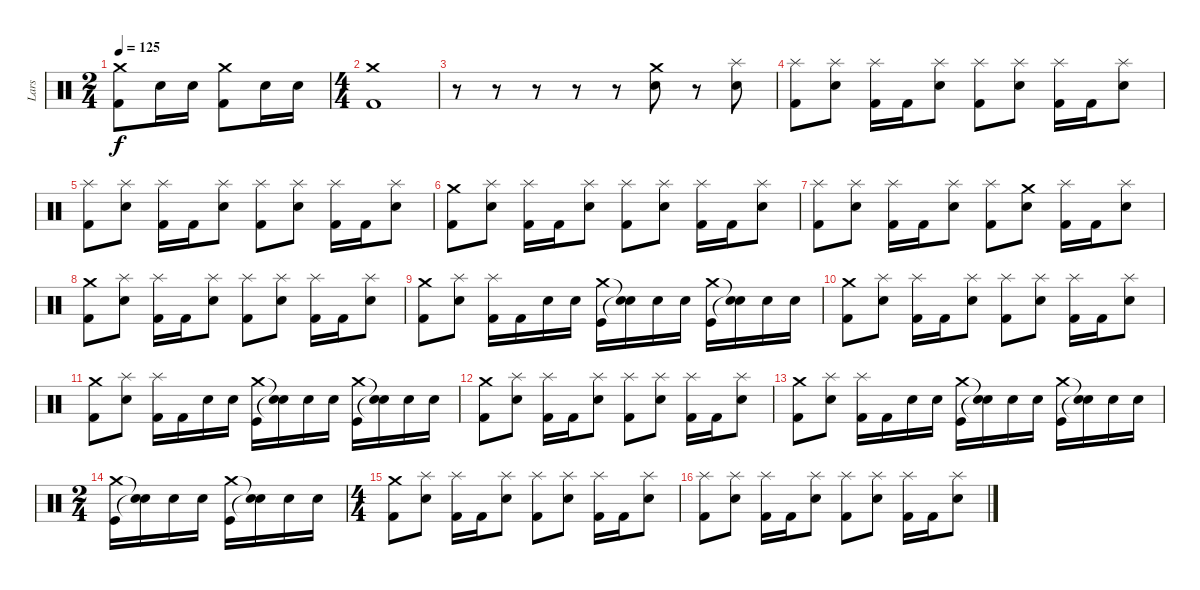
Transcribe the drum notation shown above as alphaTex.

\track ("Lars" "Lars") {instrument percussion}
\staff {score}
\articulation defaults
\ts (2 4)
\tempo 125
\clef neutral
\ks c
("Crash medium (hit)" "Kick (hit) 2").8{dy f} "Snare (hit) 2".16 "Snare (hit) 2".16 ("Crash medium (hit)" "Kick (hit) 2").8 "Snare (hit) 2".16 "Snare (hit) 2".16 |
\ts (4 4)
("Crash medium (hit)" "Kick (hit) 2").1 |
r.8 r.8 r.8 r.8 r.8 ("Crash medium (hit)" "Snare (hit) 2").8 r.8 ("Splash (hit)" "Snare (hit) 2").8 |
("Splash (hit)" "Kick (hit) 2").8 ("Splash (hit)" "Snare (hit) 2").8 ("Splash (hit)" "Kick (hit) 2").16 "Kick (hit) 2".16 ("Splash (hit)" "Snare (hit) 2").8 ("Splash (hit)" "Kick (hit) 2").8 ("Splash (hit)" "Snare (hit) 2").8 ("Splash (hit)" "Kick (hit) 2").16 "Kick (hit) 2".16 ("Splash (hit)" "Snare (hit) 2").8 |
("Splash (hit)" "Kick (hit) 2").8 ("Splash (hit)" "Snare (hit) 2").8 ("Splash (hit)" "Kick (hit) 2").16 "Kick (hit) 2".16 ("Splash (hit)" "Snare (hit) 2").8 ("Splash (hit)" "Kick (hit) 2").8 ("Splash (hit)" "Snare (hit) 2").8 ("Splash (hit)" "Kick (hit) 2").16 "Kick (hit) 2".16 ("Splash (hit)" "Snare (hit) 2").8 |
("Crash medium (hit)" "Kick (hit) 2").8 ("Splash (hit)" "Snare (hit) 2").8 ("Splash (hit)" "Kick (hit) 2").16 "Kick (hit) 2".16 ("Splash (hit)" "Snare (hit) 2").8 ("Splash (hit)" "Kick (hit) 2").8 ("Splash (hit)" "Snare (hit) 2").8 ("Splash (hit)" "Kick (hit) 2").16 "Kick (hit) 2".16 ("Splash (hit)" "Snare (hit) 2").8 |
("Splash (hit)" "Kick (hit) 2").8 ("Splash (hit)" "Snare (hit) 2").8 ("Splash (hit)" "Kick (hit) 2").16 "Kick (hit) 2".16 ("Splash (hit)" "Snare (hit) 2").8 ("Splash (hit)" "Kick (hit) 2").8 ("Crash medium (hit)" "Snare (hit) 2").8 ("Splash (hit)" "Kick (hit) 2").16 "Kick (hit) 2".16 ("Splash (hit)" "Snare (hit) 2").8 |
("Crash medium (hit)" "Kick (hit) 2").8 ("Splash (hit)" "Snare (hit) 2").8 ("Splash (hit)" "Kick (hit) 2").16 "Kick (hit) 2".16 ("Splash (hit)" "Snare (hit) 2").8 ("Splash (hit)" "Kick (hit) 2").8 ("Splash (hit)" "Snare (hit) 2").8 ("Splash (hit)" "Kick (hit) 2").16 "Kick (hit) 2".16 ("Splash (hit)" "Snare (hit) 2").8 |
("Crash medium (hit)" "Kick (hit) 2").8 ("Splash (hit)" "Snare (hit) 2").8 ("Splash (hit)" "Kick (hit) 2").16 "Kick (hit) 2".16 "Snare (hit) 2".16 "Snare (hit) 2".16 ("Crash medium (hit)" "Kick (hit)").16 ("Snare (hit)"{t} "Snare (hit)"{t}).16 "Snare (hit) 2".16 "Snare (hit) 2".16 ("Crash medium (hit)" "Kick (hit)").16 ("Snare (hit)"{t} "Snare (hit)"{t}).16 "Snare (hit) 2".16 "Snare (hit) 2".16 |
("Crash medium (hit)" "Kick (hit) 2").8 ("Splash (hit)" "Snare (hit) 2").8 ("Splash (hit)" "Kick (hit) 2").16 "Kick (hit) 2".16 ("Splash (hit)" "Snare (hit) 2").8 ("Splash (hit)" "Kick (hit) 2").8 ("Splash (hit)" "Snare (hit) 2").8 ("Splash (hit)" "Kick (hit) 2").16 "Kick (hit) 2".16 ("Splash (hit)" "Snare (hit) 2").8 |
("Crash medium (hit)" "Kick (hit) 2").8 ("Splash (hit)" "Snare (hit) 2").8 ("Splash (hit)" "Kick (hit) 2").16 "Kick (hit) 2".16 "Snare (hit) 2".16 "Snare (hit) 2".16 ("Crash medium (hit)" "Kick (hit)").16 ("Snare (hit)"{t} "Snare (hit)"{t}).16 "Snare (hit) 2".16 "Snare (hit) 2".16 ("Crash medium (hit)" "Kick (hit)").16 ("Snare (hit)"{t} "Snare (hit)"{t}).16 "Snare (hit) 2".16 "Snare (hit) 2".16 |
("Crash medium (hit)" "Kick (hit) 2").8 ("Splash (hit)" "Snare (hit) 2").8 ("Splash (hit)" "Kick (hit) 2").16 "Kick (hit) 2".16 ("Splash (hit)" "Snare (hit) 2").8 ("Splash (hit)" "Kick (hit) 2").8 ("Splash (hit)" "Snare (hit) 2").8 ("Splash (hit)" "Kick (hit) 2").16 "Kick (hit) 2".16 ("Splash (hit)" "Snare (hit) 2").8 |
("Crash medium (hit)" "Kick (hit) 2").8 ("Splash (hit)" "Snare (hit) 2").8 ("Splash (hit)" "Kick (hit) 2").16 "Kick (hit) 2".16 "Snare (hit) 2".16 "Snare (hit) 2".16 ("Crash medium (hit)" "Kick (hit)").16 ("Snare (hit)"{t} "Snare (hit)"{t}).16 "Snare (hit) 2".16 "Snare (hit) 2".16 ("Crash medium (hit)" "Kick (hit)").16 ("Snare (hit)"{t} "Snare (hit)"{t}).16 "Snare (hit) 2".16 "Snare (hit) 2".16 |
\ts (2 4)
("Crash medium (hit)" "Kick (hit)").16 ("Snare (hit)"{t} "Snare (hit)"{t}).16 "Snare (hit) 2".16 "Snare (hit) 2".16 ("Crash medium (hit)" "Kick (hit)").16 ("Snare (hit)"{t} "Snare (hit)"{t}).16 "Snare (hit) 2".16 "Snare (hit) 2".16 |
\ts (4 4)
("Crash medium (hit)" "Kick (hit) 2").8 ("Splash (hit)" "Snare (hit) 2").8 ("Splash (hit)" "Kick (hit) 2").16 "Kick (hit) 2".16 ("Splash (hit)" "Snare (hit) 2").8 ("Splash (hit)" "Kick (hit) 2").8 ("Splash (hit)" "Snare (hit) 2").8 ("Splash (hit)" "Kick (hit) 2").16 "Kick (hit) 2".16 ("Splash (hit)" "Snare (hit) 2").8 |
("Splash (hit)" "Kick (hit) 2").8 ("Splash (hit)" "Snare (hit) 2").8 ("Splash (hit)" "Kick (hit) 2").16 "Kick (hit) 2".16 ("Splash (hit)" "Snare (hit) 2").8 ("Splash (hit)" "Kick (hit) 2").8 ("Splash (hit)" "Snare (hit) 2").8 ("Splash (hit)" "Kick (hit) 2").16 "Kick (hit) 2".16 ("Splash (hit)" "Snare (hit) 2").8
